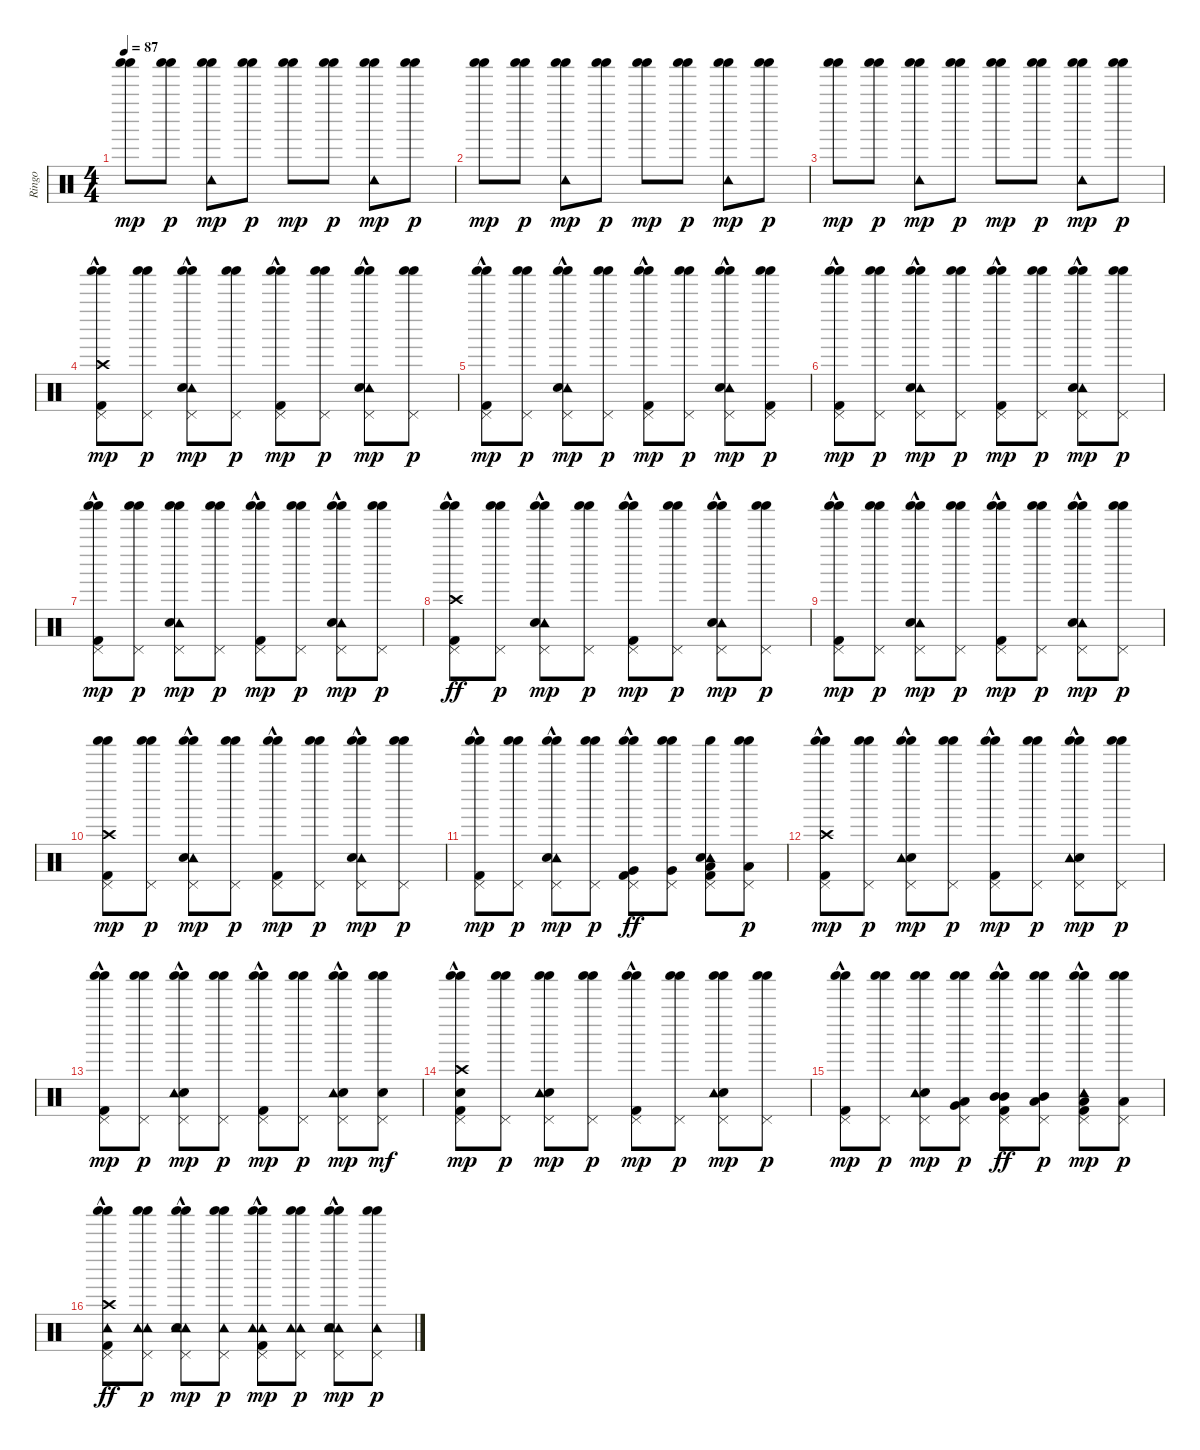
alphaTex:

\track ("Ringo" "Ringo") {instrument percussion}
\staff {score}
\articulation defaults
\ts (4 4)
\tempo 87
\clef neutral
\ks c
("Shaker (hit)" "Shaker (hit)").8{dy mp} ("Shaker (hit)" "Shaker (hit)").8{dy p} ("Shaker (hit)" "Tambourine (hit)" "Shaker (hit)").8{dy mp} ("Shaker (hit)" "Shaker (hit)").8{dy p} ("Shaker (hit)" "Shaker (hit)").8{dy mp} ("Shaker (hit)" "Shaker (hit)").8{dy p} ("Shaker (hit)" "Tambourine (hit)" "Shaker (hit)").8{dy mp} ("Shaker (hit)" "Shaker (hit)").8{dy p} |
("Shaker (hit)" "Shaker (hit)").8{dy mp} ("Shaker (hit)" "Shaker (hit)").8{dy p} ("Shaker (hit)" "Tambourine (hit)" "Shaker (hit)").8{dy mp} ("Shaker (hit)" "Shaker (hit)").8{dy p} ("Shaker (hit)" "Shaker (hit)").8{dy mp} ("Shaker (hit)" "Shaker (hit)").8{dy p} ("Shaker (hit)" "Tambourine (hit)" "Shaker (hit)").8{dy mp} ("Shaker (hit)" "Shaker (hit)").8{dy p} |
("Shaker (hit)" "Shaker (hit)").8{dy mp} ("Shaker (hit)" "Shaker (hit)").8{dy p} ("Shaker (hit)" "Tambourine (hit)" "Shaker (hit)").8{dy mp} ("Shaker (hit)" "Shaker (hit)").8{dy p} ("Shaker (hit)" "Shaker (hit)").8{dy mp} ("Shaker (hit)" "Shaker (hit)").8{dy p} ("Shaker (hit)" "Tambourine (hit)" "Shaker (hit)").8{dy mp} ("Shaker (hit)" "Shaker (hit)").8{dy p} |
("Shaker (hit)" "Crash high (hit)" "Pedal Hi-Hat (hit)" "Kick (hit) 2"{hac} "Shaker (hit)").8{dy mp} ("Shaker (hit)" "Pedal Hi-Hat (hit)" "Shaker (hit)").8{dy p} ("Shaker (hit)" "Tambourine (hit)" "Pedal Hi-Hat (hit)" "Snare (hit) 2"{hac} "Shaker (hit)").8{dy mp} ("Shaker (hit)" "Pedal Hi-Hat (hit)" "Shaker (hit)").8{dy p} ("Shaker (hit)" "Pedal Hi-Hat (hit)" "Kick (hit) 2"{hac} "Shaker (hit)").8{dy mp} ("Shaker (hit)" "Pedal Hi-Hat (hit)" "Shaker (hit)").8{dy p} ("Shaker (hit)" "Tambourine (hit)" "Pedal Hi-Hat (hit)" "Snare (hit) 2"{hac} "Shaker (hit)").8{dy mp} ("Shaker (hit)" "Pedal Hi-Hat (hit)" "Shaker (hit)").8{dy p} |
("Shaker (hit)" "Pedal Hi-Hat (hit)" "Kick (hit) 2"{hac} "Shaker (hit)").8{dy mp} ("Shaker (hit)" "Pedal Hi-Hat (hit)" "Shaker (hit)").8{dy p} ("Shaker (hit)" "Tambourine (hit)"{hac} "Pedal Hi-Hat (hit)" "Snare (hit) 2"{hac} "Shaker (hit)").8{dy mp} ("Shaker (hit)" "Pedal Hi-Hat (hit)" "Shaker (hit)").8{dy p} ("Shaker (hit)" "Pedal Hi-Hat (hit)" "Kick (hit) 2"{hac} "Shaker (hit)").8{dy mp} ("Shaker (hit)" "Pedal Hi-Hat (hit)" "Shaker (hit)").8{dy p} ("Shaker (hit)" "Tambourine (hit)" "Pedal Hi-Hat (hit)" "Snare (hit) 2"{hac} "Shaker (hit)").8{dy mp} ("Shaker (hit)" "Pedal Hi-Hat (hit)" "Kick (hit) 2" "Shaker (hit)").8{dy p} |
("Shaker (hit)" "Pedal Hi-Hat (hit)" "Kick (hit) 2"{hac} "Shaker (hit)").8{dy mp} ("Shaker (hit)" "Pedal Hi-Hat (hit)" "Shaker (hit)").8{dy p} ("Shaker (hit)" "Tambourine (hit)" "Pedal Hi-Hat (hit)" "Snare (hit) 2"{hac} "Shaker (hit)").8{dy mp} ("Shaker (hit)" "Pedal Hi-Hat (hit)" "Shaker (hit)").8{dy p} ("Shaker (hit)" "Pedal Hi-Hat (hit)" "Kick (hit) 2"{hac} "Shaker (hit)").8{dy mp} ("Shaker (hit)" "Pedal Hi-Hat (hit)" "Shaker (hit)").8{dy p} ("Shaker (hit)" "Tambourine (hit)" "Pedal Hi-Hat (hit)" "Snare (hit) 2"{hac} "Shaker (hit)").8{dy mp} ("Shaker (hit)" "Pedal Hi-Hat (hit)" "Shaker (hit)").8{dy p} |
("Shaker (hit)" "Pedal Hi-Hat (hit)" "Kick (hit) 2"{hac} "Shaker (hit)").8{dy mp} ("Shaker (hit)" "Pedal Hi-Hat (hit)" "Shaker (hit)").8{dy p} ("Shaker (hit)" "Tambourine (hit)" "Pedal Hi-Hat (hit)" "Snare (hit) 2" "Shaker (hit)").8{dy mp} ("Shaker (hit)" "Pedal Hi-Hat (hit)" "Shaker (hit)").8{dy p} ("Shaker (hit)" "Pedal Hi-Hat (hit)" "Kick (hit) 2"{hac} "Shaker (hit)").8{dy mp} ("Shaker (hit)" "Pedal Hi-Hat (hit)" "Shaker (hit)").8{dy p} ("Shaker (hit)" "Tambourine (hit)" "Pedal Hi-Hat (hit)" "Snare (hit) 2"{hac} "Shaker (hit)").8{dy mp} ("Shaker (hit)" "Pedal Hi-Hat (hit)" "Shaker (hit)").8{dy p} |
("Shaker (hit)" "Pedal Hi-Hat (hit)" "Kick (hit) 2"{hac} "Shaker (hit)" "Crash high (hit)").8{dy ff} ("Shaker (hit)" "Pedal Hi-Hat (hit)" "Shaker (hit)").8{dy p} ("Shaker (hit)" "Tambourine (hit)" "Pedal Hi-Hat (hit)" "Snare (hit) 2"{hac} "Shaker (hit)").8{dy mp} ("Shaker (hit)" "Pedal Hi-Hat (hit)" "Shaker (hit)").8{dy p} ("Shaker (hit)" "Pedal Hi-Hat (hit)" "Kick (hit) 2"{hac} "Shaker (hit)").8{dy mp} ("Shaker (hit)" "Pedal Hi-Hat (hit)" "Shaker (hit)").8{dy p} ("Shaker (hit)" "Tambourine (hit)" "Pedal Hi-Hat (hit)" "Snare (hit) 2"{hac} "Shaker (hit)").8{dy mp} ("Shaker (hit)" "Pedal Hi-Hat (hit)" "Shaker (hit)").8{dy p} |
("Shaker (hit)" "Pedal Hi-Hat (hit)" "Kick (hit) 2"{hac} "Shaker (hit)").8{dy mp} ("Shaker (hit)" "Pedal Hi-Hat (hit)" "Shaker (hit)").8{dy p} ("Shaker (hit)" "Tambourine (hit)" "Pedal Hi-Hat (hit)" "Snare (hit) 2"{hac} "Shaker (hit)").8{dy mp} ("Shaker (hit)" "Pedal Hi-Hat (hit)" "Shaker (hit)").8{dy p} ("Shaker (hit)" "Pedal Hi-Hat (hit)" "Kick (hit) 2"{hac} "Shaker (hit)").8{dy mp} ("Shaker (hit)" "Pedal Hi-Hat (hit)" "Shaker (hit)").8{dy p} ("Shaker (hit)" "Tambourine (hit)" "Pedal Hi-Hat (hit)" "Snare (hit) 2"{hac} "Shaker (hit)").8{dy mp} ("Shaker (hit)" "Pedal Hi-Hat (hit)" "Shaker (hit)").8{dy p} |
("Shaker (hit)" "Crash high (hit)" "Pedal Hi-Hat (hit)" "Kick (hit) 2" "Shaker (hit)").8{dy mp} ("Shaker (hit)" "Pedal Hi-Hat (hit)" "Shaker (hit)").8{dy p} ("Shaker (hit)" "Tambourine (hit)" "Pedal Hi-Hat (hit)" "Snare (hit) 2"{hac} "Shaker (hit)").8{dy mp} ("Shaker (hit)" "Pedal Hi-Hat (hit)" "Shaker (hit)").8{dy p} ("Shaker (hit)" "Pedal Hi-Hat (hit)" "Kick (hit) 2"{hac} "Shaker (hit)").8{dy mp} ("Shaker (hit)" "Pedal Hi-Hat (hit)" "Shaker (hit)").8{dy p} ("Shaker (hit)" "Tambourine (hit)" "Pedal Hi-Hat (hit)" "Snare (hit) 2"{hac} "Shaker (hit)").8{dy mp} ("Shaker (hit)" "Pedal Hi-Hat (hit)" "Shaker (hit)").8{dy p} |
("Shaker (hit)" "Pedal Hi-Hat (hit)" "Kick (hit) 2"{hac} "Shaker (hit)").8{dy mp} ("Shaker (hit)" "Pedal Hi-Hat (hit)" "Shaker (hit)").8{dy p} ("Shaker (hit)" "Tambourine (hit)" "Pedal Hi-Hat (hit)" "Snare (hit) 2"{hac} "Shaker (hit)").8{dy mp} ("Shaker (hit)" "Pedal Hi-Hat (hit)" "Shaker (hit)").8{dy p} ("Shaker (hit)" "Pedal Hi-Hat (hit)" "Kick (hit) 2"{hac} "Shaker (hit)" "Very Low Tom (hit)").8{dy ff} ("Shaker (hit)" "Pedal Hi-Hat (hit)" "Shaker (hit)" "Very Low Tom (hit)").8 ("Shaker (hit)" "Tambourine (hit)" "Snare (hit) 2" "Pedal Hi-Hat (hit)" "Low Tom (hit)" "Kick (hit) 2").8 ("Shaker (hit)" "Pedal Hi-Hat (hit)" "Low Floor Tom (hit)" "Shaker (hit)").8{dy p} |
("Shaker (hit)" "Pedal Hi-Hat (hit)" "Crash high (hit)" "Kick (hit) 2"{hac} "Shaker (hit)").8{dy mp} ("Shaker (hit)" "Pedal Hi-Hat (hit)" "Shaker (hit)").8{dy p} ("Shaker (hit)" "Pedal Hi-Hat (hit)" "Snare (hit) 2"{hac} "Tambourine (hit)" "Shaker (hit)").8{dy mp} ("Shaker (hit)" "Pedal Hi-Hat (hit)" "Shaker (hit)").8{dy p} ("Shaker (hit)" "Pedal Hi-Hat (hit)" "Kick (hit) 2"{hac} "Shaker (hit)").8{dy mp} ("Shaker (hit)" "Pedal Hi-Hat (hit)" "Shaker (hit)").8{dy p} ("Shaker (hit)" "Pedal Hi-Hat (hit)" "Snare (hit) 2"{hac} "Tambourine (hit)" "Shaker (hit)").8{dy mp} ("Shaker (hit)" "Pedal Hi-Hat (hit)" "Shaker (hit)").8{dy p} |
("Shaker (hit)" "Pedal Hi-Hat (hit)" "Kick (hit) 2"{hac} "Shaker (hit)").8{dy mp} ("Shaker (hit)" "Pedal Hi-Hat (hit)" "Shaker (hit)").8{dy p} ("Shaker (hit)" "Pedal Hi-Hat (hit)" "Snare (hit) 2"{hac} "Tambourine (hit)"{hac} "Shaker (hit)").8{dy mp} ("Shaker (hit)" "Pedal Hi-Hat (hit)" "Shaker (hit)").8{dy p} ("Shaker (hit)" "Pedal Hi-Hat (hit)" "Kick (hit) 2"{hac} "Shaker (hit)").8{dy mp} ("Shaker (hit)" "Pedal Hi-Hat (hit)" "Shaker (hit)").8{dy p} ("Shaker (hit)" "Pedal Hi-Hat (hit)" "Snare (hit) 2"{hac} "Tambourine (hit)"{hac} "Shaker (hit)").8{dy mp} ("Shaker (hit)" "Pedal Hi-Hat (hit)" "Shaker (hit)" "Snare (hit) 2").8{dy mf} |
("Shaker (hit)" "Snare (hit) 2" "Pedal Hi-Hat (hit)" "Crash high (hit)" "Kick (hit) 2"{hac} "Shaker (hit)").8{dy mp} ("Shaker (hit)" "Pedal Hi-Hat (hit)" "Shaker (hit)").8{dy p} ("Shaker (hit)" "Pedal Hi-Hat (hit)" "Snare (hit) 2" "Tambourine (hit)" "Shaker (hit)").8{dy mp} ("Shaker (hit)" "Pedal Hi-Hat (hit)" "Shaker (hit)").8{dy p} ("Shaker (hit)" "Pedal Hi-Hat (hit)" "Kick (hit) 2"{hac} "Shaker (hit)").8{dy mp} ("Shaker (hit)" "Pedal Hi-Hat (hit)" "Shaker (hit)").8{dy p} ("Shaker (hit)" "Pedal Hi-Hat (hit)" "Snare (hit) 2" "Tambourine (hit)" "Shaker (hit)").8{dy mp} ("Shaker (hit)" "Pedal Hi-Hat (hit)" "Shaker (hit)").8{dy p} |
("Shaker (hit)" "Pedal Hi-Hat (hit)" "Kick (hit) 2"{hac} "Shaker (hit)").8{dy mp} ("Shaker (hit)" "Pedal Hi-Hat (hit)" "Shaker (hit)").8{dy p} ("Shaker (hit)" "Snare (hit) 2" "Pedal Hi-Hat (hit)" "Tambourine (hit)" "Shaker (hit)").8{dy mp} ("Shaker (hit)" "Low Floor Tom (hit)" "Very Low Tom (hit)" "Pedal Hi-Hat (hit)" "Shaker (hit)").8{dy p} ("Shaker (hit)" "Pedal Hi-Hat (hit)" "Kick (hit) 2"{hac} "Mid Tom (hit)" "Shaker (hit)" "Mid Tom (hit)").8{dy ff} ("Shaker (hit)" "Pedal Hi-Hat (hit)" "Low Tom (hit)" "Mid Tom (hit)" "Shaker (hit)").8{dy p} ("Shaker (hit)" "Pedal Hi-Hat (hit)" "Kick (hit) 2" "Low Tom (hit)" "Tambourine (hit)"{hac} "Shaker (hit)").8{dy mp} ("Shaker (hit)" "Pedal Hi-Hat (hit)" "Low Floor Tom (hit)" "Shaker (hit)").8{dy p} |
("Shaker (hit)" "Kick (hit) 2"{hac} "Pedal Hi-Hat (hit)" "Tambourine (hit)" "Shaker (hit)" "Crash high (hit)").8{dy ff} ("Shaker (hit)" "Tambourine (hit)" "Pedal Hi-Hat (hit)" "Tambourine (hit)" "Shaker (hit)").8{dy p} ("Shaker (hit)" "Tambourine (hit)" "Tambourine (hit)" "Snare (hit) 2"{hac} "Pedal Hi-Hat (hit)" "Shaker (hit)").8{dy mp} ("Shaker (hit)" "Pedal Hi-Hat (hit)" "Tambourine (hit)" "Shaker (hit)").8{dy p} ("Shaker (hit)" "Tambourine (hit)" "Kick (hit) 2"{hac} "Pedal Hi-Hat (hit)" "Tambourine (hit)" "Shaker (hit)").8{dy mp} ("Shaker (hit)" "Tambourine (hit)" "Pedal Hi-Hat (hit)" "Tambourine (hit)" "Shaker (hit)").8{dy p} ("Shaker (hit)" "Tambourine (hit)" "Tambourine (hit)" "Snare (hit) 2"{hac} "Pedal Hi-Hat (hit)" "Shaker (hit)").8{dy mp} ("Shaker (hit)" "Pedal Hi-Hat (hit)" "Tambourine (hit)" "Shaker (hit)").8{dy p}
